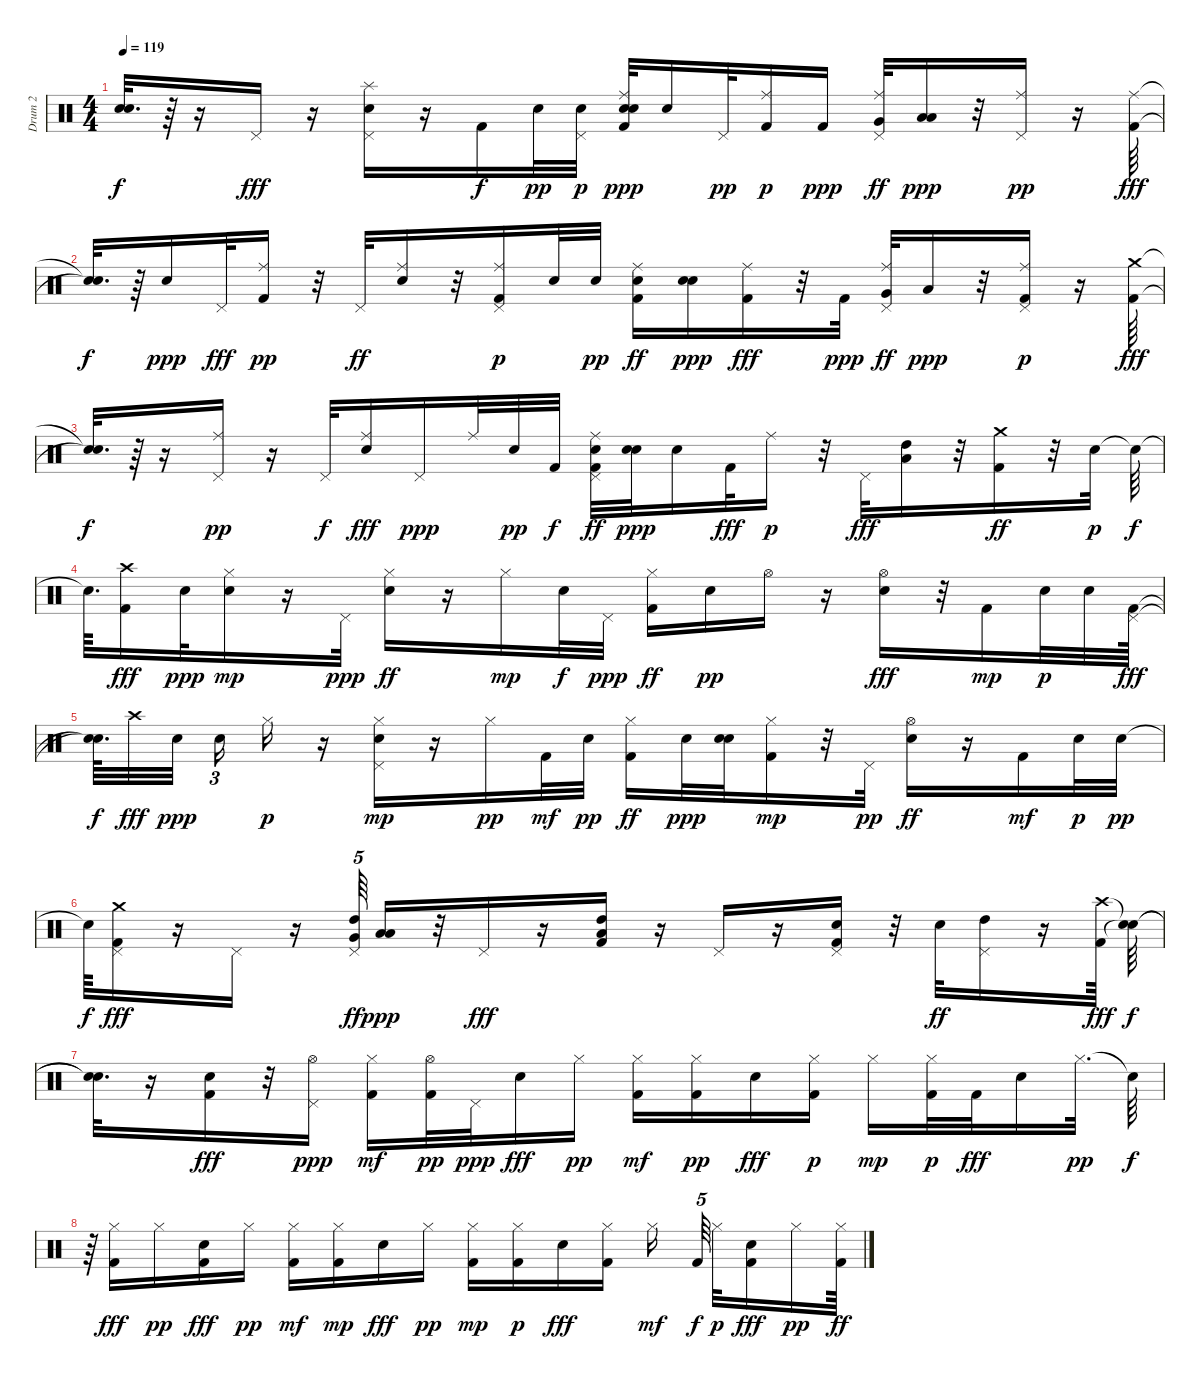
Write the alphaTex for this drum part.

\track ("Drum 2                          " "Drum 2    ") {instrument percussion}
\staff {score}
\articulation defaults
\ts (4 4)
\tempo 119
\clef neutral
\ks c
("Snare (hit)"{t} "Snare (hit)"{t}).32{d dy f} r.64 r.16 "Pedal Hi-Hat (hit)".16{dy fff} r.16 ("Snare (hit) 2" "Pedal Hi-Hat (hit)" "Splash (hit)").16 r.16 "Kick (hit) 2".16{dy f} "Snare (hit) 2".32{dy pp} ("Snare (hit) 2" "Pedal Hi-Hat (hit)").32{dy p} ("Snare (hit) 2" "Ride (middle)" "Kick (hit) 2" "Snare (hit) 2").32{dy ppp} "Snare (hit) 2".16 "Pedal Hi-Hat (hit)".32{dy pp} ("Kick (hit) 2" "Ride (middle)").16{dy p} "Kick (hit) 2".16{dy ppp} ("Very Low Tom (hit)" "Pedal Hi-Hat (hit)" "Ride (middle)").32{dy ff} ("Low Floor Tom (hit)" "Low Floor Tom (hit)").16{dy ppp} r.32 ("Pedal Hi-Hat (hit)" "Ride (middle)").16{dy pp} r.16 ("Kick (hit) 2" "Ride (middle)").64{dy fff} |
("Snare (hit)"{t} "Snare (hit)"{t}).32{d dy f} r.64 "Snare (hit) 2".16{dy ppp} "Pedal Hi-Hat (hit)".32{dy fff} ("Ride (middle)" "Kick (hit) 2").16{dy pp} r.32 "Pedal Hi-Hat (hit)".32{dy ff} ("Electric Snare (hit)" "Ride (middle)").16 r.32 ("Kick (hit) 2" "Pedal Hi-Hat (hit)" "Ride (middle)").16{dy p} "Snare (hit) 2".32 "Snare (hit) 2".32{dy pp} ("Kick (hit) 2" "Snare (hit) 2" "Ride (middle)").16{dy ff} ("Snare (hit) 2" "Snare (hit) 2").16{dy ppp} ("Ride (middle)" "Kick (hit) 2").16{dy fff} r.32 "Kick (hit) 2".32{dy ppp} ("Pedal Hi-Hat (hit)" "Very Low Tom (hit)" "Ride (middle)").32{dy ff} "Low Floor Tom (hit)".16{dy ppp} r.32 ("Kick (hit) 2" "Pedal Hi-Hat (hit)" "Ride (middle)").16{dy p} r.16 ("Crash medium (hit)" "Kick (hit) 2").64{dy fff} |
("Snare (hit)"{t} "Snare (hit)"{t}).32{d dy f} r.64 r.16 ("Pedal Hi-Hat (hit)" "Ride (middle)").16{dy pp} r.16 "Pedal Hi-Hat (hit)".32{dy f} ("Snare (hit) 2" "Ride (middle)").16{dy fff} "Pedal Hi-Hat (hit)".16{dy ppp} "Ride (middle)".32 "Snare (hit) 2".32{dy pp} "Kick (hit) 2".32{dy f} ("Snare (hit) 2" "Pedal Hi-Hat (hit)" "Ride (middle)" "Kick (hit) 2").32{dy ff} ("Snare (hit) 2" "Snare (hit) 2").32{dy ppp} "Snare (hit) 2".16 "Kick (hit) 2".32{dy fff} "Ride (middle)".16{dy p} r.32 "Pedal Hi-Hat (hit)".32{dy fff} ("High Tom (hit)" "Low Tom (hit)").16 r.32 ("Crash medium (hit)" "Kick (hit) 2").16{dy ff} r.32 "Snare (hit) 2".32{dy p} "Snare (hit)"{t}.64{dy f} |
"Snare (hit)"{t}.64{d} ("Crash high (hit)" "Kick (hit) 2").16{dy fff} "Snare (hit) 2".32{dy ppp} ("Snare (hit) 2" "Hi-Hat (closed)").16{dy mp} r.16 "Pedal Hi-Hat (hit)".32{dy ppp} ("Snare (hit) 2" "Hi-Hat (closed)").16{dy ff} r.16 "Hi-Hat (closed)".16{dy mp} "Snare (hit) 2".32{dy f} "Pedal Hi-Hat (hit)".32{dy ppp} ("Kick (hit) 2" "Hi-Hat (closed)").16{dy ff} "Snare (hit) 2".16{dy pp} "Hi-Hat (open)".16 r.16 ("Snare (hit) 2" "Hi-Hat (open)").16{dy fff} r.32 "Kick (hit) 2".16{dy mp} "Snare (hit) 2".32{dy p} "Snare (hit) 2".32 ("Pedal Hi-Hat (hit)" "Kick (hit) 2").64{dy fff} |
("Snare (hit)"{t} "Snare (hit)"{t}).64{d dy f} "Crash high (hit)".32{dy fff} "Snare (hit) 2".32{dy ppp beam splitsecondary} "Snare (hit) 2".16{tu (3 2)} "Hi-Hat (closed)".16{dy p} r.16 ("Pedal Hi-Hat (hit)" "Snare (hit) 2" "Hi-Hat (closed)").16{dy mp} r.16 "Hi-Hat (closed)".16{dy pp} "Kick (hit) 2".32{dy mf} "Snare (hit) 2".32{dy pp} ("Kick (hit) 2" "Hi-Hat (closed)").16{dy ff} "Snare (hit) 2".32{dy ppp} ("Snare (hit) 2" "Snare (hit) 2").32 ("Kick (hit) 2" "Hi-Hat (closed)").16{dy mp} r.32 "Pedal Hi-Hat (hit)".32{dy pp} ("Electric Snare (hit)" "Hi-Hat (open)").16{dy ff} r.16 "Kick (hit) 2".16{dy mf} "Snare (hit) 2".32{dy p} "Snare (hit) 2".32{dy pp} |
"Snare (hit)"{t}.64{dy f} ("Pedal Hi-Hat (hit)" "Crash medium (hit)" "Kick (hit) 2").16{dy fff} r.16 "Pedal Hi-Hat (hit)".16 r.16 ("High Tom (hit)" "Pedal Hi-Hat (hit)" "Very Low Tom (hit)").64{tu (5 4) dy ff} ("Low Floor Tom (hit)" "Low Floor Tom (hit)").16{dy ppp} r.32 "Pedal Hi-Hat (hit)".16{dy fff} r.16 ("High Tom (hit)" "Kick (hit) 2" "Low Floor Tom (hit)").16 r.16 "Pedal Hi-Hat (hit)".16 r.16 ("Pedal Hi-Hat (hit)" "Kick (hit) 2" "Snare (hit) 2").16 r.32 "Electric Snare (hit)".32{dy ff} ("Pedal Hi-Hat (hit)" "High Tom (hit)").16 r.16 ("Crash high (hit)" "Kick (hit) 2").64{dy fff} ("Snare (hit)"{t} "Snare (hit)"{t}).64{dy f} |
("Snare (hit)"{t} "Snare (hit)"{t}).32{d} r.16 ("Kick (hit) 2" "Snare (hit) 2").16{dy fff} r.32 ("Hi-Hat (open)" "Pedal Hi-Hat (hit)").16{dy ppp} ("Kick (hit) 2" "Hi-Hat (closed)").16{dy mf} ("Kick (hit) 2" "Hi-Hat (open)").32{dy pp} "Pedal Hi-Hat (hit)".32{dy ppp} "Snare (hit) 2".16{dy fff} "Hi-Hat (closed)".16{dy pp} ("Kick (hit) 2" "Hi-Hat (closed)").16{dy mf} ("Kick (hit) 2" "Hi-Hat (closed)").16{dy pp} "Snare (hit) 2".16{dy fff} ("Kick (hit) 2" "Hi-Hat (closed)").16{dy p} "Hi-Hat (closed)".16{dy mp} ("Kick (hit) 2" "Hi-Hat (closed)").32{dy p} "Kick (hit) 2".32{dy fff} "Snare (hit) 2".16 "Hi-Hat (closed)".32{d dy pp} "Snare (hit)"{t}.64{dy f} |
r.64 ("Kick (hit) 2" "Hi-Hat (closed)").16{dy fff} "Hi-Hat (closed)".16{dy pp} ("Kick (hit) 2" "Snare (hit) 2").16{dy fff} "Hi-Hat (closed)".16{dy pp} ("Hi-Hat (closed)" "Kick (hit) 2").16{dy mf} ("Kick (hit) 2" "Hi-Hat (closed)").16{dy mp} "Snare (hit) 2".16{dy fff} "Hi-Hat (closed)".16{dy pp} ("Kick (hit) 2" "Hi-Hat (closed)").16{dy mp} ("Kick (hit) 2" "Hi-Hat (closed)").16{dy p} "Snare (hit) 2".16{dy fff} ("Hi-Hat (closed)" "Kick (hit) 2").16 "Hi-Hat (closed)".16{dy mf beam splitsecondary} "Kick (hit) 2".64{tu (5 4) dy f beam splitsecondary} "Hi-Hat (closed)".32{dy p} ("Kick (hit) 2" "Snare (hit) 2").16{dy fff} "Hi-Hat (closed)".16{dy pp} ("Kick (hit) 2" "Hi-Hat (closed)").64{dy ff}
